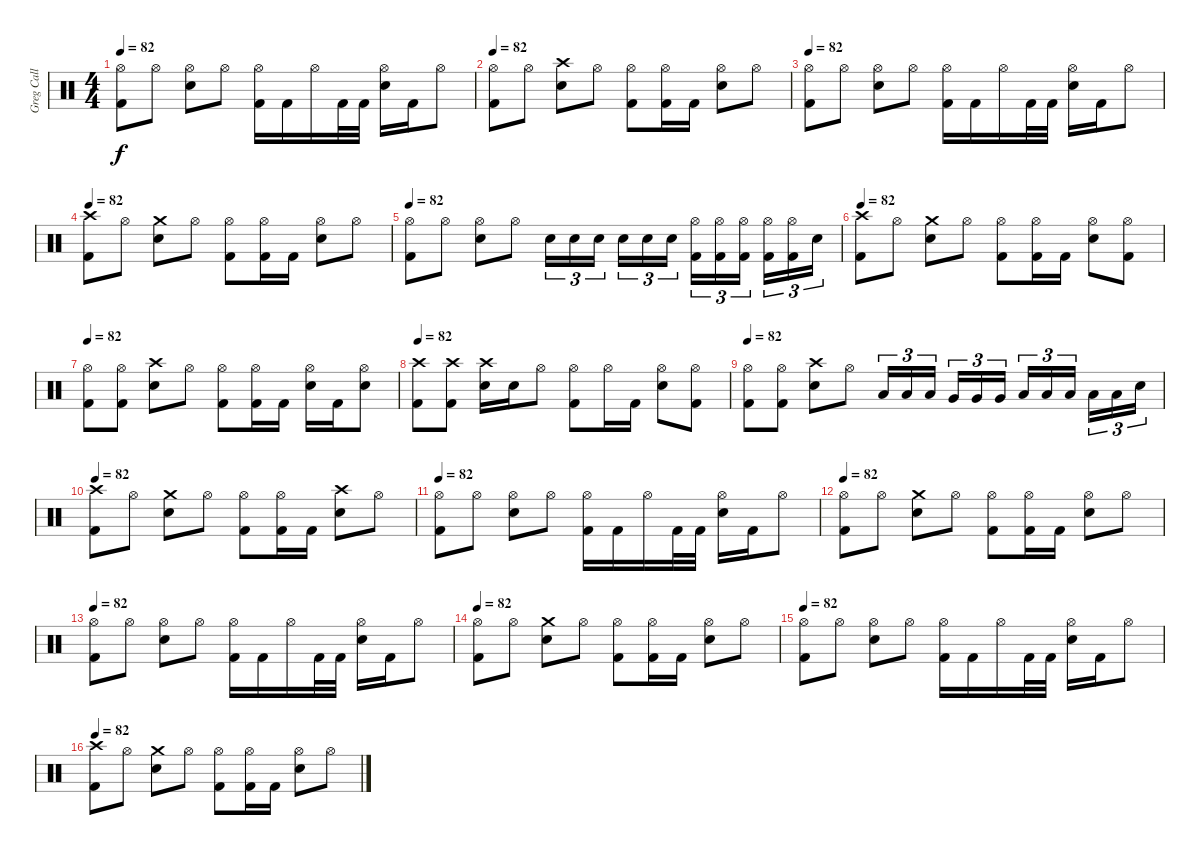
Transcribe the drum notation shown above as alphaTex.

\track ("Greg Call (Drums)" "Greg Call ") {instrument percussion}
\staff {score}
\articulation defaults
\ts (4 4)
\tempo 82
\clef neutral
\ks c
("Hi-Hat (open)" "Kick (hit) 2").8{dy f} "Hi-Hat (open)".8 ("Hi-Hat (open)" "Snare (hit) 2").8 "Hi-Hat (open)".8 ("Hi-Hat (open)" "Kick (hit) 2").16 "Kick (hit) 2".16 "Hi-Hat (open)".16 "Kick (hit) 2".32 "Kick (hit) 2".32 ("Hi-Hat (open)" "Snare (hit) 2").16 "Kick (hit) 2".16 "Hi-Hat (open)".8 |
\tempo 82
("Hi-Hat (open)" "Kick (hit) 2").8 "Hi-Hat (open)".8 ("Crash high (hit)" "Snare (hit) 2").8 "Hi-Hat (open)".8 ("Hi-Hat (open)" "Kick (hit) 2").8 ("Hi-Hat (open)" "Kick (hit) 2").16 "Kick (hit) 2".16 ("Hi-Hat (open)" "Snare (hit) 2").8 "Hi-Hat (open)".8 |
\tempo 82
("Hi-Hat (open)" "Kick (hit) 2").8 "Hi-Hat (open)".8 ("Hi-Hat (open)" "Snare (hit) 2").8 "Hi-Hat (open)".8 ("Hi-Hat (open)" "Kick (hit) 2").16 "Kick (hit) 2".16 "Hi-Hat (open)".16 "Kick (hit) 2".32 "Kick (hit) 2".32 ("Hi-Hat (open)" "Snare (hit) 2").16 "Kick (hit) 2".16 "Hi-Hat (open)".8 |
\tempo 82
("Crash high (hit)" "Kick (hit) 2").8 "Hi-Hat (open)".8 ("Crash medium (hit)" "Snare (hit) 2").8 "Hi-Hat (open)".8 ("Hi-Hat (open)" "Kick (hit) 2").8 ("Hi-Hat (open)" "Kick (hit) 2").16 "Kick (hit) 2".16 ("Hi-Hat (open)" "Snare (hit) 2").8 "Hi-Hat (open)".8 |
\tempo 82
("Hi-Hat (open)" "Kick (hit) 2").8 "Hi-Hat (open)".8 ("Hi-Hat (open)" "Snare (hit) 2").8 "Hi-Hat (open)".8 "Snare (hit) 2".16{tu (3 2)} "Snare (hit) 2".16{tu (3 2)} "Snare (hit) 2".16{tu (3 2)} "Snare (hit) 2".16{tu (3 2)} "Snare (hit) 2".16{tu (3 2)} "Snare (hit) 2".16{tu (3 2)} ("Kick (hit) 2" "Hi-Hat (open)").16{tu (3 2)} ("Kick (hit) 2" "Hi-Hat (open)").16{tu (3 2)} ("Kick (hit) 2" "Hi-Hat (open)").16{tu (3 2)} ("Kick (hit) 2" "Hi-Hat (open)").16{tu (3 2)} ("Kick (hit) 2" "Hi-Hat (open)").16{tu (3 2)} "Snare (hit) 2".16{tu (3 2)} |
\tempo 82
("Crash high (hit)" "Kick (hit) 2").8 "Hi-Hat (open)".8 ("Crash medium (hit)" "Snare (hit) 2").8 "Hi-Hat (open)".8 ("Hi-Hat (open)" "Kick (hit) 2").8 ("Hi-Hat (open)" "Kick (hit) 2").16 "Kick (hit) 2".16 ("Hi-Hat (open)" "Snare (hit) 2").8 ("Hi-Hat (open)" "Kick (hit) 2").8 |
\tempo 82
("Hi-Hat (open)" "Kick (hit) 2").8 ("Hi-Hat (open)" "Kick (hit) 2").8 ("Crash high (hit)" "Snare (hit) 2").8 "Hi-Hat (open)".8 ("Hi-Hat (open)" "Kick (hit) 2").8 ("Hi-Hat (open)" "Kick (hit) 2").16 "Kick (hit) 2".16 ("Hi-Hat (open)" "Snare (hit) 2").16 "Kick (hit) 2".16 ("Hi-Hat (open)" "Snare (hit) 2").8 |
\tempo 82
("Crash high (hit)" "Kick (hit) 2").8 ("Crash high (hit)" "Kick (hit) 2").8 ("Crash high (hit)" "Snare (hit) 2").16 "Snare (hit) 2".16 "Hi-Hat (open)".8 ("Hi-Hat (open)" "Kick (hit) 2").8 "Hi-Hat (open)".16 "Kick (hit) 2".16 ("Hi-Hat (open)" "Snare (hit) 2").8 ("Hi-Hat (open)" "Kick (hit) 2").8 |
\tempo 82
("Hi-Hat (open)" "Kick (hit) 2").8 ("Hi-Hat (open)" "Kick (hit) 2").8 ("Crash high (hit)" "Snare (hit) 2").8 "Hi-Hat (open)".8 "Low Tom (hit)".16{tu (3 2)} "Low Tom (hit)".16{tu (3 2)} "Low Tom (hit)".16{tu (3 2)} "Very Low Tom (hit)".16{tu (3 2)} "Very Low Tom (hit)".16{tu (3 2)} "Very Low Tom (hit)".16{tu (3 2)} "Low Floor Tom (hit)".16{tu (3 2)} "Low Floor Tom (hit)".16{tu (3 2)} "Low Floor Tom (hit)".16{tu (3 2)} "Low Floor Tom (hit)".16{tu (3 2)} "Low Floor Tom (hit)".16{tu (3 2)} "Snare (hit) 2".16{tu (3 2)} |
\tempo 82
("Crash high (hit)" "Kick (hit) 2").8 "Hi-Hat (open)".8 ("Crash medium (hit)" "Snare (hit) 2").8 "Hi-Hat (open)".8 ("Hi-Hat (open)" "Kick (hit) 2").8 ("Hi-Hat (open)" "Kick (hit) 2").16 "Kick (hit) 2".16 ("Crash high (hit)" "Snare (hit) 2").8 "Hi-Hat (open)".8 |
\tempo 82
("Hi-Hat (open)" "Kick (hit) 2").8 "Hi-Hat (open)".8 ("Hi-Hat (open)" "Snare (hit) 2").8 "Hi-Hat (open)".8 ("Hi-Hat (open)" "Kick (hit) 2").16 "Kick (hit) 2".16 "Hi-Hat (open)".16 "Kick (hit) 2".32 "Kick (hit) 2".32 ("Hi-Hat (open)" "Snare (hit) 2").16 "Kick (hit) 2".16 "Hi-Hat (open)".8 |
\tempo 82
("Hi-Hat (open)" "Kick (hit) 2").8 "Hi-Hat (open)".8 ("Crash medium (hit)" "Snare (hit) 2").8 "Hi-Hat (open)".8 ("Hi-Hat (open)" "Kick (hit) 2").8 ("Hi-Hat (open)" "Kick (hit) 2").16 "Kick (hit) 2".16 ("Hi-Hat (open)" "Snare (hit) 2").8 "Hi-Hat (open)".8 |
\tempo 82
("Hi-Hat (open)" "Kick (hit) 2").8 "Hi-Hat (open)".8 ("Hi-Hat (open)" "Snare (hit) 2").8 "Hi-Hat (open)".8 ("Hi-Hat (open)" "Kick (hit) 2").16 "Kick (hit) 2".16 "Hi-Hat (open)".16 "Kick (hit) 2".32 "Kick (hit) 2".32 ("Hi-Hat (open)" "Snare (hit) 2").16 "Kick (hit) 2".16 "Hi-Hat (open)".8 |
\tempo 82
("Hi-Hat (open)" "Kick (hit) 2").8 "Hi-Hat (open)".8 ("Crash medium (hit)" "Snare (hit) 2").8 "Hi-Hat (open)".8 ("Hi-Hat (open)" "Kick (hit) 2").8 ("Hi-Hat (open)" "Kick (hit) 2").16 "Kick (hit) 2".16 ("Hi-Hat (open)" "Snare (hit) 2").8 "Hi-Hat (open)".8 |
\tempo 82
("Hi-Hat (open)" "Kick (hit) 2").8 "Hi-Hat (open)".8 ("Hi-Hat (open)" "Snare (hit) 2").8 "Hi-Hat (open)".8 ("Hi-Hat (open)" "Kick (hit) 2").16 "Kick (hit) 2".16 "Hi-Hat (open)".16 "Kick (hit) 2".32 "Kick (hit) 2".32 ("Hi-Hat (open)" "Snare (hit) 2").16 "Kick (hit) 2".16 "Hi-Hat (open)".8 |
\tempo 82
("Crash high (hit)" "Kick (hit) 2").8 "Hi-Hat (open)".8 ("Crash medium (hit)" "Snare (hit) 2").8 "Hi-Hat (open)".8 ("Hi-Hat (open)" "Kick (hit) 2").8 ("Hi-Hat (open)" "Kick (hit) 2").16 "Kick (hit) 2".16 ("Hi-Hat (open)" "Snare (hit) 2").8 "Hi-Hat (open)".8
